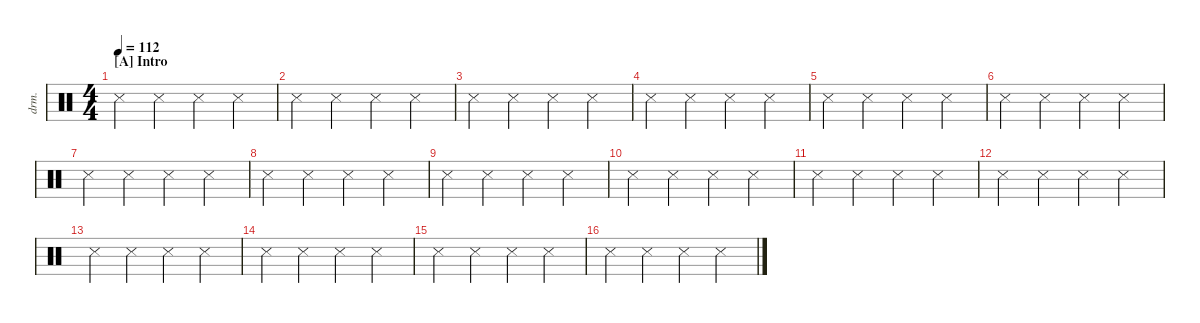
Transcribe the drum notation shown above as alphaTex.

\defaultSystemsLayout 4
\hideDynamics
\bracketExtendMode nobrackets
\otherSystemsTrackNameOrientation horizontal
\track ("Drumkit" "drm.") {instrument percussion}
\staff {score}
\articulation defaults
\ts (4 4)
\section ("A" "Intro")
\tempo 112
\clef neutral
\ks c "Metronome (hit)".4{dy mf} "Metronome (hit)".4 "Metronome (hit)".4 "Metronome (hit)".4
|
"Metronome (hit)".4 "Metronome (hit)".4 "Metronome (hit)".4 "Metronome (hit)".4 |
"Metronome (hit)".4 "Metronome (hit)".4 "Metronome (hit)".4 "Metronome (hit)".4 |
"Metronome (hit)".4 "Metronome (hit)".4 "Metronome (hit)".4 "Metronome (hit)".4 |
"Metronome (hit)".4 "Metronome (hit)".4 "Metronome (hit)".4 "Metronome (hit)".4 |
"Metronome (hit)".4 "Metronome (hit)".4 "Metronome (hit)".4 "Metronome (hit)".4 |
"Metronome (hit)".4 "Metronome (hit)".4 "Metronome (hit)".4 "Metronome (hit)".4 |
"Metronome (hit)".4 "Metronome (hit)".4 "Metronome (hit)".4 "Metronome (hit)".4 |
"Metronome (hit)".4 "Metronome (hit)".4 "Metronome (hit)".4 "Metronome (hit)".4 |
"Metronome (hit)".4 "Metronome (hit)".4 "Metronome (hit)".4 "Metronome (hit)".4 |
"Metronome (hit)".4 "Metronome (hit)".4 "Metronome (hit)".4 "Metronome (hit)".4 |
"Metronome (hit)".4 "Metronome (hit)".4 "Metronome (hit)".4 "Metronome (hit)".4 |
"Metronome (hit)".4 "Metronome (hit)".4 "Metronome (hit)".4 "Metronome (hit)".4 |
"Metronome (hit)".4 "Metronome (hit)".4 "Metronome (hit)".4 "Metronome (hit)".4 |
"Metronome (hit)".4 "Metronome (hit)".4 "Metronome (hit)".4 "Metronome (hit)".4 |
"Metronome (hit)".4 "Metronome (hit)".4 "Metronome (hit)".4 "Metronome (hit)".4
